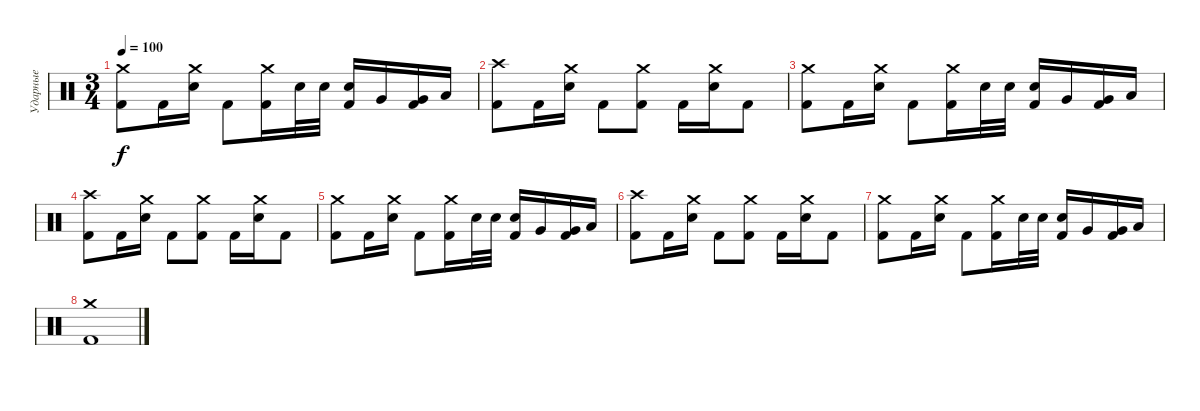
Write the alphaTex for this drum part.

\track ("Ударные" "Ударные") {instrument percussion}
\staff {score}
\articulation defaults
\ts (3 4)
\tempo 100
\clef neutral
\ks c
("Crash medium (hit)" "Kick (hit) 2").8{dy f} "Kick (hit) 2".16 ("Crash medium (hit)" "Electric Snare (hit)").16 "Kick (hit) 2".8 ("Crash medium (hit)" "Kick (hit) 2").16 "Electric Snare (hit)".32 "Electric Snare (hit)".32 ("Electric Snare (hit)" "Kick (hit) 2").16 "Very Low Tom (hit)".16 ("Very Low Tom (hit)" "Kick (hit) 2").16 "Low Floor Tom (hit)".16 |
("Crash high (hit)" "Kick (hit) 2").8 "Kick (hit) 2".16 ("Crash medium (hit)" "Electric Snare (hit)").16 "Kick (hit) 2".8 ("Crash medium (hit)" "Kick (hit) 2").8 "Kick (hit) 2".16 ("Crash medium (hit)" "Electric Snare (hit)").16 "Kick (hit) 2".8 |
("Crash medium (hit)" "Kick (hit) 2").8 "Kick (hit) 2".16 ("Crash medium (hit)" "Electric Snare (hit)").16 "Kick (hit) 2".8 ("Crash medium (hit)" "Kick (hit) 2").16 "Electric Snare (hit)".32 "Electric Snare (hit)".32 ("Electric Snare (hit)" "Kick (hit) 2").16 "Very Low Tom (hit)".16 ("Very Low Tom (hit)" "Kick (hit) 2").16 "Low Floor Tom (hit)".16 |
("Crash high (hit)" "Kick (hit) 2").8 "Kick (hit) 2".16 ("Crash medium (hit)" "Electric Snare (hit)").16 "Kick (hit) 2".8 ("Crash medium (hit)" "Kick (hit) 2").8 "Kick (hit) 2".16 ("Crash medium (hit)" "Electric Snare (hit)").16 "Kick (hit) 2".8 |
("Crash medium (hit)" "Kick (hit) 2").8 "Kick (hit) 2".16 ("Crash medium (hit)" "Electric Snare (hit)").16 "Kick (hit) 2".8 ("Crash medium (hit)" "Kick (hit) 2").16 "Electric Snare (hit)".32 "Electric Snare (hit)".32 ("Electric Snare (hit)" "Kick (hit) 2").16 "Very Low Tom (hit)".16 ("Very Low Tom (hit)" "Kick (hit) 2").16 "Low Floor Tom (hit)".16 |
("Crash high (hit)" "Kick (hit) 2").8 "Kick (hit) 2".16 ("Crash medium (hit)" "Electric Snare (hit)").16 "Kick (hit) 2".8 ("Crash medium (hit)" "Kick (hit) 2").8 "Kick (hit) 2".16 ("Crash medium (hit)" "Electric Snare (hit)").16 "Kick (hit) 2".8 |
("Crash medium (hit)" "Kick (hit) 2").8 "Kick (hit) 2".16 ("Crash medium (hit)" "Electric Snare (hit)").16 "Kick (hit) 2".8 ("Crash medium (hit)" "Kick (hit) 2").16 "Electric Snare (hit)".32 "Electric Snare (hit)".32 ("Electric Snare (hit)" "Kick (hit) 2").16 "Very Low Tom (hit)".16 ("Very Low Tom (hit)" "Kick (hit) 2").16 "Low Floor Tom (hit)".16 |
("Crash medium (hit)" "Kick (hit) 2").1
